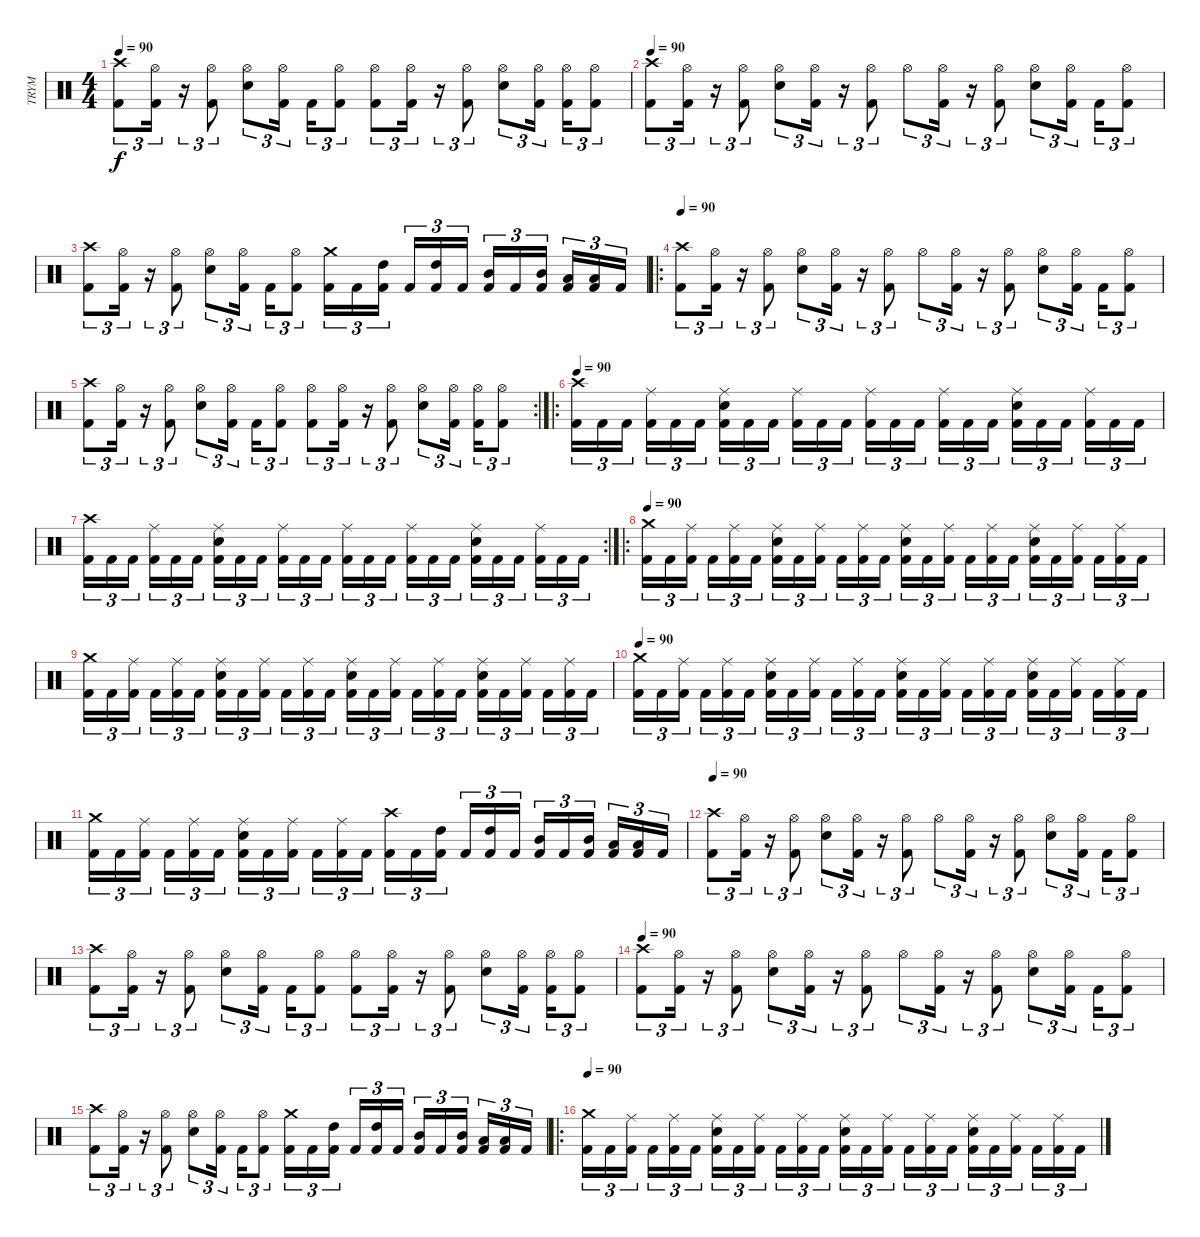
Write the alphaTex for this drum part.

\track ("TRYM" "TRYM") {instrument percussion}
\staff {score}
\articulation defaults
\ts (4 4)
\tempo 90
\clef neutral
\ks c
("Kick (hit) 2" "Crash high (hit)").8{tu (3 2) dy f} ("Kick (hit) 2" "Hi-Hat (open)").16{tu (3 2)} r.16{tu (3 2)} ("Kick (hit) 2" "Hi-Hat (open)").8{tu (3 2)} ("Hi-Hat (open)" "Electric Snare (hit)").8{tu (3 2)} ("Kick (hit) 2" "Hi-Hat (open)").16{tu (3 2)} "Kick (hit) 2".16{tu (3 2)} ("Kick (hit) 2" "Hi-Hat (open)").8{tu (3 2)} ("Kick (hit) 2" "Hi-Hat (open)").8{tu (3 2)} ("Kick (hit) 2" "Hi-Hat (open)").16{tu (3 2)} r.16{tu (3 2)} ("Kick (hit) 2" "Hi-Hat (open)").8{tu (3 2)} ("Hi-Hat (open)" "Electric Snare (hit)").8{tu (3 2)} ("Kick (hit) 2" "Hi-Hat (open)").16{tu (3 2)} ("Kick (hit) 2" "Hi-Hat (open)").16{tu (3 2)} ("Kick (hit) 2" "Hi-Hat (open)").8{tu (3 2)} |
\tempo 90
("Kick (hit) 2" "Crash high (hit)").8{tu (3 2)} ("Kick (hit) 2" "Hi-Hat (open)").16{tu (3 2)} r.16{tu (3 2)} ("Kick (hit) 2" "Hi-Hat (open)").8{tu (3 2)} ("Hi-Hat (open)" "Electric Snare (hit)").8{tu (3 2)} ("Kick (hit) 2" "Hi-Hat (open)").16{tu (3 2)} r.16{tu (3 2)} ("Kick (hit) 2" "Hi-Hat (open)").8{tu (3 2)} "Hi-Hat (open)".8{tu (3 2)} ("Kick (hit) 2" "Hi-Hat (open)").16{tu (3 2)} r.16{tu (3 2)} ("Kick (hit) 2" "Hi-Hat (open)").8{tu (3 2)} ("Hi-Hat (open)" "Electric Snare (hit)").8{tu (3 2)} ("Kick (hit) 2" "Hi-Hat (open)").16{tu (3 2)} "Kick (hit) 2".16{tu (3 2)} ("Kick (hit) 2" "Hi-Hat (open)").8{tu (3 2)} |
("Kick (hit) 2" "Crash high (hit)").8{tu (3 2)} ("Kick (hit) 2" "Hi-Hat (open)").16{tu (3 2)} r.16{tu (3 2)} ("Kick (hit) 2" "Hi-Hat (open)").8{tu (3 2)} ("Hi-Hat (open)" "Electric Snare (hit)").8{tu (3 2)} ("Kick (hit) 2" "Hi-Hat (open)").16{tu (3 2)} "Kick (hit) 2".16{tu (3 2)} ("Kick (hit) 2" "Hi-Hat (open)").8{tu (3 2)} ("Kick (hit) 2" "Crash medium (hit)").16{tu (3 2)} "Kick (hit) 2".16{tu (3 2)} ("Kick (hit) 2" "High Tom (hit)").16{tu (3 2)} "Kick (hit) 2".16{tu (3 2)} ("Kick (hit) 2" "High Tom (hit)").16{tu (3 2)} "Kick (hit) 2".16{tu (3 2)} ("Kick (hit) 2" "Mid Tom (hit)").16{tu (3 2)} "Kick (hit) 2".16{tu (3 2)} ("Kick (hit) 2" "Mid Tom (hit)").16{tu (3 2)} ("Kick (hit) 2" "Low Tom (hit)").16{tu (3 2)} ("Kick (hit) 2" "Low Tom (hit)").16{tu (3 2)} "Kick (hit) 2".16{tu (3 2)} |
\ro
\tempo 90
("Kick (hit) 2" "Crash high (hit)").8{tu (3 2)} ("Kick (hit) 2" "Hi-Hat (open)").16{tu (3 2)} r.16{tu (3 2)} ("Kick (hit) 2" "Hi-Hat (open)").8{tu (3 2)} ("Hi-Hat (open)" "Electric Snare (hit)").8{tu (3 2)} ("Kick (hit) 2" "Hi-Hat (open)").16{tu (3 2)} r.16{tu (3 2)} ("Kick (hit) 2" "Hi-Hat (open)").8{tu (3 2)} "Hi-Hat (open)".8{tu (3 2)} ("Kick (hit) 2" "Hi-Hat (open)").16{tu (3 2)} r.16{tu (3 2)} ("Kick (hit) 2" "Hi-Hat (open)").8{tu (3 2)} ("Hi-Hat (open)" "Electric Snare (hit)").8{tu (3 2)} ("Kick (hit) 2" "Hi-Hat (open)").16{tu (3 2)} "Kick (hit) 2".16{tu (3 2)} ("Kick (hit) 2" "Hi-Hat (open)").8{tu (3 2)} |
\rc 2
("Kick (hit) 2" "Crash high (hit)").8{tu (3 2)} ("Kick (hit) 2" "Hi-Hat (open)").16{tu (3 2)} r.16{tu (3 2)} ("Kick (hit) 2" "Hi-Hat (open)").8{tu (3 2)} ("Hi-Hat (open)" "Electric Snare (hit)").8{tu (3 2)} ("Kick (hit) 2" "Hi-Hat (open)").16{tu (3 2)} "Kick (hit) 2".16{tu (3 2)} ("Kick (hit) 2" "Hi-Hat (open)").8{tu (3 2)} ("Kick (hit) 2" "Hi-Hat (open)").8{tu (3 2)} ("Kick (hit) 2" "Hi-Hat (open)").16{tu (3 2)} r.16{tu (3 2)} ("Kick (hit) 2" "Hi-Hat (open)").8{tu (3 2)} ("Hi-Hat (open)" "Electric Snare (hit)").8{tu (3 2)} ("Kick (hit) 2" "Hi-Hat (open)").16{tu (3 2)} ("Kick (hit) 2" "Hi-Hat (open)").16{tu (3 2)} ("Kick (hit) 2" "Hi-Hat (open)").8{tu (3 2)} |
\ro
\tempo 90
("Kick (hit) 2" "Crash high (hit)").16{tu (3 2)} "Kick (hit) 2".16{tu (3 2)} "Kick (hit) 2".16{tu (3 2)} ("Kick (hit) 2" "Ride (middle)").16{tu (3 2)} "Kick (hit) 2".16{tu (3 2)} "Kick (hit) 2".16{tu (3 2)} ("Kick (hit) 2" "Ride (middle)" "Electric Snare (hit)").16{tu (3 2)} "Kick (hit) 2".16{tu (3 2)} "Kick (hit) 2".16{tu (3 2)} ("Kick (hit) 2" "Ride (middle)").16{tu (3 2)} "Kick (hit) 2".16{tu (3 2)} "Kick (hit) 2".16{tu (3 2)} ("Kick (hit) 2" "Ride (middle)").16{tu (3 2)} "Kick (hit) 2".16{tu (3 2)} "Kick (hit) 2".16{tu (3 2)} ("Kick (hit) 2" "Ride (middle)").16{tu (3 2)} "Kick (hit) 2".16{tu (3 2)} "Kick (hit) 2".16{tu (3 2)} ("Kick (hit) 2" "Ride (middle)" "Electric Snare (hit)").16{tu (3 2)} "Kick (hit) 2".16{tu (3 2)} "Kick (hit) 2".16{tu (3 2)} ("Kick (hit) 2" "Ride (middle)").16{tu (3 2)} "Kick (hit) 2".16{tu (3 2)} "Kick (hit) 2".16{tu (3 2)} |
\rc 2
("Kick (hit) 2" "Crash high (hit)").16{tu (3 2)} "Kick (hit) 2".16{tu (3 2)} "Kick (hit) 2".16{tu (3 2)} ("Kick (hit) 2" "Ride (middle)").16{tu (3 2)} "Kick (hit) 2".16{tu (3 2)} "Kick (hit) 2".16{tu (3 2)} ("Kick (hit) 2" "Ride (middle)" "Electric Snare (hit)").16{tu (3 2)} "Kick (hit) 2".16{tu (3 2)} "Kick (hit) 2".16{tu (3 2)} ("Kick (hit) 2" "Ride (middle)").16{tu (3 2)} "Kick (hit) 2".16{tu (3 2)} "Kick (hit) 2".16{tu (3 2)} ("Kick (hit) 2" "Ride (middle)").16{tu (3 2)} "Kick (hit) 2".16{tu (3 2)} "Kick (hit) 2".16{tu (3 2)} ("Kick (hit) 2" "Ride (middle)").16{tu (3 2)} "Kick (hit) 2".16{tu (3 2)} "Kick (hit) 2".16{tu (3 2)} ("Kick (hit) 2" "Ride (middle)" "Electric Snare (hit)").16{tu (3 2)} "Kick (hit) 2".16{tu (3 2)} "Kick (hit) 2".16{tu (3 2)} ("Kick (hit) 2" "Ride (middle)").16{tu (3 2)} "Kick (hit) 2".16{tu (3 2)} "Kick (hit) 2".16{tu (3 2)} |
\ro
\tempo 90
("Kick (hit) 2" "Crash medium (hit)").16{tu (3 2)} "Kick (hit) 2".16{tu (3 2)} ("Kick (hit) 2" "Ride (middle)").16{tu (3 2)} "Kick (hit) 2".16{tu (3 2)} ("Kick (hit) 2" "Ride (middle)").16{tu (3 2)} "Kick (hit) 2".16{tu (3 2)} ("Kick (hit) 2" "Ride (middle)" "Electric Snare (hit)").16{tu (3 2)} "Kick (hit) 2".16{tu (3 2)} ("Kick (hit) 2" "Ride (middle)").16{tu (3 2)} "Kick (hit) 2".16{tu (3 2)} ("Kick (hit) 2" "Ride (middle)").16{tu (3 2)} "Kick (hit) 2".16{tu (3 2)} ("Kick (hit) 2" "Ride (middle)" "Electric Snare (hit)").16{tu (3 2)} "Kick (hit) 2".16{tu (3 2)} ("Kick (hit) 2" "Ride (middle)").16{tu (3 2)} "Kick (hit) 2".16{tu (3 2)} ("Kick (hit) 2" "Ride (middle)").16{tu (3 2)} "Kick (hit) 2".16{tu (3 2)} ("Kick (hit) 2" "Ride (middle)" "Electric Snare (hit)").16{tu (3 2)} "Kick (hit) 2".16{tu (3 2)} ("Kick (hit) 2" "Ride (middle)").16{tu (3 2)} "Kick (hit) 2".16{tu (3 2)} ("Kick (hit) 2" "Ride (middle)").16{tu (3 2)} "Kick (hit) 2".16{tu (3 2)} |
("Kick (hit) 2" "Crash medium (hit)").16{tu (3 2)} "Kick (hit) 2".16{tu (3 2)} ("Kick (hit) 2" "Ride (middle)").16{tu (3 2)} "Kick (hit) 2".16{tu (3 2)} ("Kick (hit) 2" "Ride (middle)").16{tu (3 2)} "Kick (hit) 2".16{tu (3 2)} ("Kick (hit) 2" "Ride (middle)" "Electric Snare (hit)").16{tu (3 2)} "Kick (hit) 2".16{tu (3 2)} ("Kick (hit) 2" "Ride (middle)").16{tu (3 2)} "Kick (hit) 2".16{tu (3 2)} ("Kick (hit) 2" "Ride (middle)").16{tu (3 2)} "Kick (hit) 2".16{tu (3 2)} ("Kick (hit) 2" "Ride (middle)" "Electric Snare (hit)").16{tu (3 2)} "Kick (hit) 2".16{tu (3 2)} ("Kick (hit) 2" "Ride (middle)").16{tu (3 2)} "Kick (hit) 2".16{tu (3 2)} ("Kick (hit) 2" "Ride (middle)").16{tu (3 2)} "Kick (hit) 2".16{tu (3 2)} ("Kick (hit) 2" "Ride (middle)" "Electric Snare (hit)").16{tu (3 2)} "Kick (hit) 2".16{tu (3 2)} ("Kick (hit) 2" "Ride (middle)").16{tu (3 2)} "Kick (hit) 2".16{tu (3 2)} ("Kick (hit) 2" "Ride (middle)").16{tu (3 2)} "Kick (hit) 2".16{tu (3 2)} |
\tempo 90
("Kick (hit) 2" "Crash medium (hit)").16{tu (3 2)} "Kick (hit) 2".16{tu (3 2)} ("Kick (hit) 2" "Ride (middle)").16{tu (3 2)} "Kick (hit) 2".16{tu (3 2)} ("Kick (hit) 2" "Ride (middle)").16{tu (3 2)} "Kick (hit) 2".16{tu (3 2)} ("Kick (hit) 2" "Ride (middle)" "Electric Snare (hit)").16{tu (3 2)} "Kick (hit) 2".16{tu (3 2)} ("Kick (hit) 2" "Ride (middle)").16{tu (3 2)} "Kick (hit) 2".16{tu (3 2)} ("Kick (hit) 2" "Ride (middle)").16{tu (3 2)} "Kick (hit) 2".16{tu (3 2)} ("Kick (hit) 2" "Ride (middle)" "Electric Snare (hit)").16{tu (3 2)} "Kick (hit) 2".16{tu (3 2)} ("Kick (hit) 2" "Ride (middle)").16{tu (3 2)} "Kick (hit) 2".16{tu (3 2)} ("Kick (hit) 2" "Ride (middle)").16{tu (3 2)} "Kick (hit) 2".16{tu (3 2)} ("Kick (hit) 2" "Ride (middle)" "Electric Snare (hit)").16{tu (3 2)} "Kick (hit) 2".16{tu (3 2)} ("Kick (hit) 2" "Ride (middle)").16{tu (3 2)} "Kick (hit) 2".16{tu (3 2)} ("Kick (hit) 2" "Ride (middle)").16{tu (3 2)} "Kick (hit) 2".16{tu (3 2)} |
("Kick (hit) 2" "Crash medium (hit)").16{tu (3 2)} "Kick (hit) 2".16{tu (3 2)} ("Kick (hit) 2" "Ride (middle)").16{tu (3 2)} "Kick (hit) 2".16{tu (3 2)} ("Kick (hit) 2" "Ride (middle)").16{tu (3 2)} "Kick (hit) 2".16{tu (3 2)} ("Kick (hit) 2" "Ride (middle)" "Electric Snare (hit)").16{tu (3 2)} "Kick (hit) 2".16{tu (3 2)} ("Kick (hit) 2" "Ride (middle)").16{tu (3 2)} "Kick (hit) 2".16{tu (3 2)} ("Kick (hit) 2" "Ride (middle)").16{tu (3 2)} "Kick (hit) 2".16{tu (3 2)} ("Kick (hit) 2" "Crash high (hit)").16{tu (3 2)} "Kick (hit) 2".16{tu (3 2)} ("Kick (hit) 2" "High Tom (hit)").16{tu (3 2)} "Kick (hit) 2".16{tu (3 2)} ("Kick (hit) 2" "High Tom (hit)").16{tu (3 2)} "Kick (hit) 2".16{tu (3 2)} ("Kick (hit) 2" "Mid Tom (hit)").16{tu (3 2)} "Kick (hit) 2".16{tu (3 2)} ("Kick (hit) 2" "Mid Tom (hit)").16{tu (3 2)} ("Kick (hit) 2" "Low Tom (hit)").16{tu (3 2)} ("Kick (hit) 2" "Low Tom (hit)").16{tu (3 2)} "Kick (hit) 2".16{tu (3 2)} |
\tempo 90
("Kick (hit) 2" "Crash high (hit)").8{tu (3 2)} ("Kick (hit) 2" "Hi-Hat (open)").16{tu (3 2)} r.16{tu (3 2)} ("Kick (hit) 2" "Hi-Hat (open)").8{tu (3 2)} ("Hi-Hat (open)" "Electric Snare (hit)").8{tu (3 2)} ("Kick (hit) 2" "Hi-Hat (open)").16{tu (3 2)} r.16{tu (3 2)} ("Kick (hit) 2" "Hi-Hat (open)").8{tu (3 2)} "Hi-Hat (open)".8{tu (3 2)} ("Kick (hit) 2" "Hi-Hat (open)").16{tu (3 2)} r.16{tu (3 2)} ("Kick (hit) 2" "Hi-Hat (open)").8{tu (3 2)} ("Hi-Hat (open)" "Electric Snare (hit)").8{tu (3 2)} ("Kick (hit) 2" "Hi-Hat (open)").16{tu (3 2)} "Kick (hit) 2".16{tu (3 2)} ("Kick (hit) 2" "Hi-Hat (open)").8{tu (3 2)} |
("Kick (hit) 2" "Crash high (hit)").8{tu (3 2)} ("Kick (hit) 2" "Hi-Hat (open)").16{tu (3 2)} r.16{tu (3 2)} ("Kick (hit) 2" "Hi-Hat (open)").8{tu (3 2)} ("Hi-Hat (open)" "Electric Snare (hit)").8{tu (3 2)} ("Kick (hit) 2" "Hi-Hat (open)").16{tu (3 2)} "Kick (hit) 2".16{tu (3 2)} ("Kick (hit) 2" "Hi-Hat (open)").8{tu (3 2)} ("Kick (hit) 2" "Hi-Hat (open)").8{tu (3 2)} ("Kick (hit) 2" "Hi-Hat (open)").16{tu (3 2)} r.16{tu (3 2)} ("Kick (hit) 2" "Hi-Hat (open)").8{tu (3 2)} ("Hi-Hat (open)" "Electric Snare (hit)").8{tu (3 2)} ("Kick (hit) 2" "Hi-Hat (open)").16{tu (3 2)} ("Kick (hit) 2" "Hi-Hat (open)").16{tu (3 2)} ("Kick (hit) 2" "Hi-Hat (open)").8{tu (3 2)} |
\tempo 90
("Kick (hit) 2" "Crash high (hit)").8{tu (3 2)} ("Kick (hit) 2" "Hi-Hat (open)").16{tu (3 2)} r.16{tu (3 2)} ("Kick (hit) 2" "Hi-Hat (open)").8{tu (3 2)} ("Hi-Hat (open)" "Electric Snare (hit)").8{tu (3 2)} ("Kick (hit) 2" "Hi-Hat (open)").16{tu (3 2)} r.16{tu (3 2)} ("Kick (hit) 2" "Hi-Hat (open)").8{tu (3 2)} "Hi-Hat (open)".8{tu (3 2)} ("Kick (hit) 2" "Hi-Hat (open)").16{tu (3 2)} r.16{tu (3 2)} ("Kick (hit) 2" "Hi-Hat (open)").8{tu (3 2)} ("Hi-Hat (open)" "Electric Snare (hit)").8{tu (3 2)} ("Kick (hit) 2" "Hi-Hat (open)").16{tu (3 2)} "Kick (hit) 2".16{tu (3 2)} ("Kick (hit) 2" "Hi-Hat (open)").8{tu (3 2)} |
("Kick (hit) 2" "Crash high (hit)").8{tu (3 2)} ("Kick (hit) 2" "Hi-Hat (open)").16{tu (3 2)} r.16{tu (3 2)} ("Kick (hit) 2" "Hi-Hat (open)").8{tu (3 2)} ("Hi-Hat (open)" "Electric Snare (hit)").8{tu (3 2)} ("Kick (hit) 2" "Hi-Hat (open)").16{tu (3 2)} "Kick (hit) 2".16{tu (3 2)} ("Kick (hit) 2" "Hi-Hat (open)").8{tu (3 2)} ("Kick (hit) 2" "Crash medium (hit)").16{tu (3 2)} "Kick (hit) 2".16{tu (3 2)} ("Kick (hit) 2" "High Tom (hit)").16{tu (3 2)} "Kick (hit) 2".16{tu (3 2)} ("Kick (hit) 2" "High Tom (hit)").16{tu (3 2)} "Kick (hit) 2".16{tu (3 2)} ("Kick (hit) 2" "Mid Tom (hit)").16{tu (3 2)} "Kick (hit) 2".16{tu (3 2)} ("Kick (hit) 2" "Mid Tom (hit)").16{tu (3 2)} ("Kick (hit) 2" "Low Tom (hit)").16{tu (3 2)} ("Kick (hit) 2" "Low Tom (hit)").16{tu (3 2)} "Kick (hit) 2".16{tu (3 2)} |
\ro
\tempo 90
("Kick (hit) 2" "Crash medium (hit)").16{tu (3 2)} "Kick (hit) 2".16{tu (3 2)} ("Kick (hit) 2" "Ride (middle)").16{tu (3 2)} "Kick (hit) 2".16{tu (3 2)} ("Kick (hit) 2" "Ride (middle)").16{tu (3 2)} "Kick (hit) 2".16{tu (3 2)} ("Kick (hit) 2" "Ride (middle)" "Electric Snare (hit)").16{tu (3 2)} "Kick (hit) 2".16{tu (3 2)} ("Kick (hit) 2" "Ride (middle)").16{tu (3 2)} "Kick (hit) 2".16{tu (3 2)} ("Kick (hit) 2" "Ride (middle)").16{tu (3 2)} "Kick (hit) 2".16{tu (3 2)} ("Kick (hit) 2" "Ride (middle)" "Electric Snare (hit)").16{tu (3 2)} "Kick (hit) 2".16{tu (3 2)} ("Kick (hit) 2" "Ride (middle)").16{tu (3 2)} "Kick (hit) 2".16{tu (3 2)} ("Kick (hit) 2" "Ride (middle)").16{tu (3 2)} "Kick (hit) 2".16{tu (3 2)} ("Kick (hit) 2" "Ride (middle)" "Electric Snare (hit)").16{tu (3 2)} "Kick (hit) 2".16{tu (3 2)} ("Kick (hit) 2" "Ride (middle)").16{tu (3 2)} "Kick (hit) 2".16{tu (3 2)} ("Kick (hit) 2" "Ride (middle)").16{tu (3 2)} "Kick (hit) 2".16{tu (3 2)}
